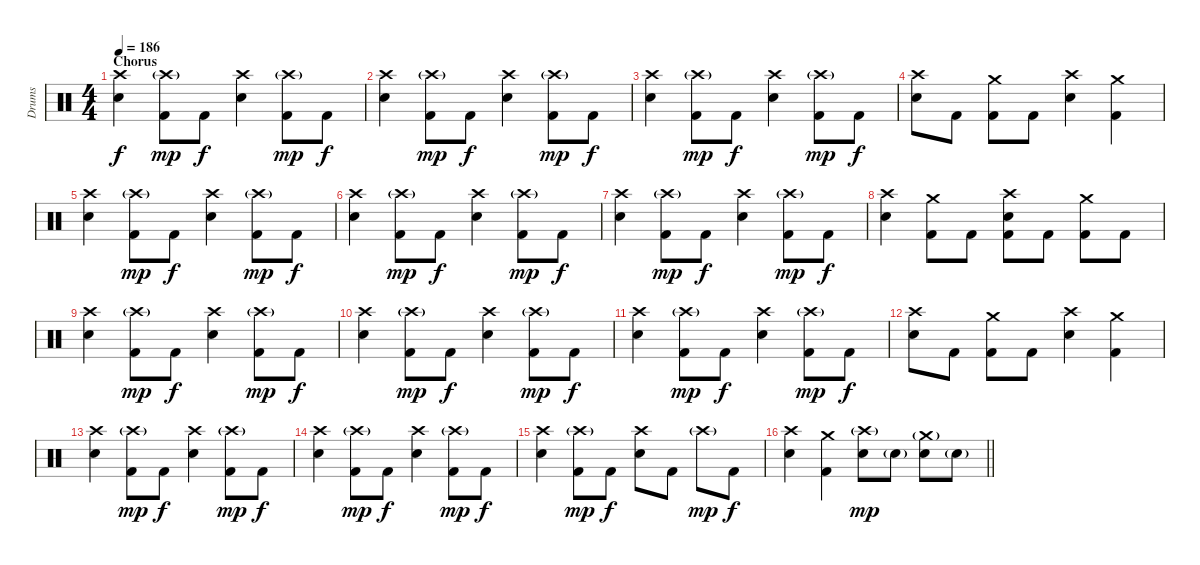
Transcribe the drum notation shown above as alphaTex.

\track ("Drums" "Drums") {instrument percussion}
\staff {score}
\articulation defaults
\ts (4 4)
\section ("" "Chorus")
\tempo 186
\clef neutral
\ks c
("Crash high (hit)" "Electric Snare (hit)").4{dy f} ("Crash high (hit)"{g} "Kick (hit) 2").8{dy mp} "Kick (hit) 2".8{dy f} ("Crash high (hit)" "Electric Snare (hit)").4 ("Crash high (hit)"{g} "Kick (hit) 2").8{dy mp} "Kick (hit) 2".8{dy f} |
("Crash high (hit)" "Electric Snare (hit)").4 ("Crash high (hit)"{g} "Kick (hit) 2").8{dy mp} "Kick (hit) 2".8{dy f} ("Crash high (hit)" "Electric Snare (hit)").4 ("Crash high (hit)"{g} "Kick (hit) 2").8{dy mp} "Kick (hit) 2".8{dy f} |
("Crash high (hit)" "Electric Snare (hit)").4 ("Crash high (hit)"{g} "Kick (hit) 2").8{dy mp} "Kick (hit) 2".8{dy f} ("Crash high (hit)" "Electric Snare (hit)").4 ("Crash high (hit)"{g} "Kick (hit) 2").8{dy mp} "Kick (hit) 2".8{dy f} |
("Crash high (hit)" "Electric Snare (hit)").8 "Kick (hit) 2".8 ("Crash medium (hit)" "Kick (hit) 2").8 "Kick (hit) 2".8 ("Crash high (hit)" "Electric Snare (hit)").4 ("Crash medium (hit)" "Kick (hit) 2").4 |
("Crash high (hit)" "Electric Snare (hit)").4 ("Crash high (hit)"{g} "Kick (hit) 2").8{dy mp} "Kick (hit) 2".8{dy f} ("Crash high (hit)" "Electric Snare (hit)").4 ("Crash high (hit)"{g} "Kick (hit) 2").8{dy mp} "Kick (hit) 2".8{dy f} |
("Crash high (hit)" "Electric Snare (hit)").4 ("Crash high (hit)"{g} "Kick (hit) 2").8{dy mp} "Kick (hit) 2".8{dy f} ("Crash high (hit)" "Electric Snare (hit)").4 ("Crash high (hit)"{g} "Kick (hit) 2").8{dy mp} "Kick (hit) 2".8{dy f} |
("Crash high (hit)" "Electric Snare (hit)").4 ("Crash high (hit)"{g} "Kick (hit) 2").8{dy mp} "Kick (hit) 2".8{dy f} ("Crash high (hit)" "Electric Snare (hit)").4 ("Crash high (hit)"{g} "Kick (hit) 2").8{dy mp} "Kick (hit) 2".8{dy f} |
("Crash high (hit)" "Electric Snare (hit)").4 ("Crash medium (hit)" "Kick (hit) 2").8 "Kick (hit) 2".8 ("Crash high (hit)" "Electric Snare (hit)" "Kick (hit) 2").8 "Kick (hit) 2".8 ("Crash medium (hit)" "Kick (hit) 2").8 "Kick (hit) 2".8 |
("Crash high (hit)" "Electric Snare (hit)").4 ("Crash high (hit)"{g} "Kick (hit) 2").8{dy mp} "Kick (hit) 2".8{dy f} ("Crash high (hit)" "Electric Snare (hit)").4 ("Crash high (hit)"{g} "Kick (hit) 2").8{dy mp} "Kick (hit) 2".8{dy f} |
("Crash high (hit)" "Electric Snare (hit)").4 ("Crash high (hit)"{g} "Kick (hit) 2").8{dy mp} "Kick (hit) 2".8{dy f} ("Crash high (hit)" "Electric Snare (hit)").4 ("Crash high (hit)"{g} "Kick (hit) 2").8{dy mp} "Kick (hit) 2".8{dy f} |
("Crash high (hit)" "Electric Snare (hit)").4 ("Crash high (hit)"{g} "Kick (hit) 2").8{dy mp} "Kick (hit) 2".8{dy f} ("Crash high (hit)" "Electric Snare (hit)").4 ("Crash high (hit)"{g} "Kick (hit) 2").8{dy mp} "Kick (hit) 2".8{dy f} |
("Crash high (hit)" "Electric Snare (hit)").8 "Kick (hit) 2".8 ("Crash medium (hit)" "Kick (hit) 2").8 "Kick (hit) 2".8 ("Crash high (hit)" "Electric Snare (hit)").4 ("Crash medium (hit)" "Kick (hit) 2").4 |
("Crash high (hit)" "Electric Snare (hit)").4 ("Crash high (hit)"{g} "Kick (hit) 2").8{dy mp} "Kick (hit) 2".8{dy f} ("Crash high (hit)" "Electric Snare (hit)").4 ("Crash high (hit)"{g} "Kick (hit) 2").8{dy mp} "Kick (hit) 2".8{dy f} |
("Crash high (hit)" "Electric Snare (hit)").4 ("Crash high (hit)"{g} "Kick (hit) 2").8{dy mp} "Kick (hit) 2".8{dy f} ("Crash high (hit)" "Electric Snare (hit)").4 ("Crash high (hit)"{g} "Kick (hit) 2").8{dy mp} "Kick (hit) 2".8{dy f} |
("Crash high (hit)" "Electric Snare (hit)").4 ("Crash high (hit)"{g} "Kick (hit) 2").8{dy mp} "Kick (hit) 2".8{dy f} ("Crash high (hit)" "Electric Snare (hit)").8 "Kick (hit) 2".8 "Crash high (hit)"{g}.8{dy mp} "Kick (hit) 2".8{dy f} |
\barLineRight lightlight
("Crash high (hit)" "Electric Snare (hit)").4 ("Crash medium (hit)" "Kick (hit) 2").4 ("Crash high (hit)"{g} "Electric Snare (hit)").8{dy mp} "Electric Snare (hit)"{g}.8 ("Crash medium (hit)"{g} "Electric Snare (hit)").8 "Electric Snare (hit)"{g}.8
